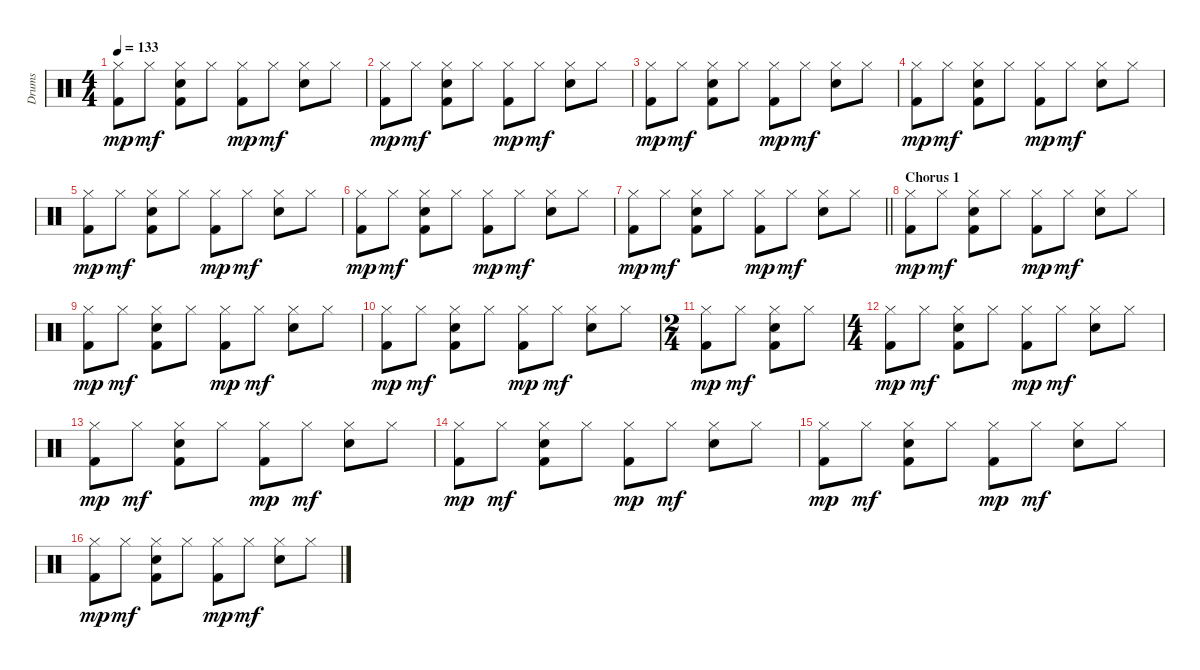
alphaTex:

\track ("Drums" "Drums") {instrument percussion}
\staff {score}
\articulation defaults
\ts (4 4)
\tempo 133
\clef neutral
\ks c
("Kick (hit) 2" "Hi-Hat (closed)").8{dy mp} "Hi-Hat (closed)".8{dy mf} ("Kick (hit) 2" "Snare (hit) 2" "Hi-Hat (closed)").8 "Hi-Hat (closed)".8 ("Kick (hit) 2" "Hi-Hat (closed)").8{dy mp} "Hi-Hat (closed)".8{dy mf} ("Snare (hit) 2" "Hi-Hat (closed)").8 "Hi-Hat (closed)".8 |
("Kick (hit) 2" "Hi-Hat (closed)").8{dy mp} "Hi-Hat (closed)".8{dy mf} ("Kick (hit) 2" "Snare (hit) 2" "Hi-Hat (closed)").8 "Hi-Hat (closed)".8 ("Kick (hit) 2" "Hi-Hat (closed)").8{dy mp} "Hi-Hat (closed)".8{dy mf} ("Snare (hit) 2" "Hi-Hat (closed)").8 "Hi-Hat (closed)".8 |
("Kick (hit) 2" "Hi-Hat (closed)").8{dy mp} "Hi-Hat (closed)".8{dy mf} ("Kick (hit) 2" "Snare (hit) 2" "Hi-Hat (closed)").8 "Hi-Hat (closed)".8 ("Kick (hit) 2" "Hi-Hat (closed)").8{dy mp} "Hi-Hat (closed)".8{dy mf} ("Snare (hit) 2" "Hi-Hat (closed)").8 "Hi-Hat (closed)".8 |
("Kick (hit) 2" "Hi-Hat (closed)").8{dy mp} "Hi-Hat (closed)".8{dy mf} ("Kick (hit) 2" "Snare (hit) 2" "Hi-Hat (closed)").8 "Hi-Hat (closed)".8 ("Kick (hit) 2" "Hi-Hat (closed)").8{dy mp} "Hi-Hat (closed)".8{dy mf} ("Snare (hit) 2" "Hi-Hat (closed)").8 "Hi-Hat (closed)".8 |
("Kick (hit) 2" "Hi-Hat (closed)").8{dy mp} "Hi-Hat (closed)".8{dy mf} ("Kick (hit) 2" "Snare (hit) 2" "Hi-Hat (closed)").8 "Hi-Hat (closed)".8 ("Kick (hit) 2" "Hi-Hat (closed)").8{dy mp} "Hi-Hat (closed)".8{dy mf} ("Snare (hit) 2" "Hi-Hat (closed)").8 "Hi-Hat (closed)".8 |
("Kick (hit) 2" "Hi-Hat (closed)").8{dy mp} "Hi-Hat (closed)".8{dy mf} ("Kick (hit) 2" "Snare (hit) 2" "Hi-Hat (closed)").8 "Hi-Hat (closed)".8 ("Kick (hit) 2" "Hi-Hat (closed)").8{dy mp} "Hi-Hat (closed)".8{dy mf} ("Snare (hit) 2" "Hi-Hat (closed)").8 "Hi-Hat (closed)".8 |
\barLineRight lightlight
("Kick (hit) 2" "Hi-Hat (closed)").8{dy mp} "Hi-Hat (closed)".8{dy mf} ("Kick (hit) 2" "Snare (hit) 2" "Hi-Hat (closed)").8 "Hi-Hat (closed)".8 ("Kick (hit) 2" "Hi-Hat (closed)").8{dy mp} "Hi-Hat (closed)".8{dy mf} ("Snare (hit) 2" "Hi-Hat (closed)").8 "Hi-Hat (closed)".8 |
\section ("" "Chorus 1")
("Kick (hit) 2" "Hi-Hat (closed)").8{dy mp} "Hi-Hat (closed)".8{dy mf} ("Kick (hit) 2" "Snare (hit) 2" "Hi-Hat (closed)").8 "Hi-Hat (closed)".8 ("Kick (hit) 2" "Hi-Hat (closed)").8{dy mp} "Hi-Hat (closed)".8{dy mf} ("Snare (hit) 2" "Hi-Hat (closed)").8 "Hi-Hat (closed)".8 |
("Kick (hit) 2" "Hi-Hat (closed)").8{dy mp} "Hi-Hat (closed)".8{dy mf} ("Kick (hit) 2" "Snare (hit) 2" "Hi-Hat (closed)").8 "Hi-Hat (closed)".8 ("Kick (hit) 2" "Hi-Hat (closed)").8{dy mp} "Hi-Hat (closed)".8{dy mf} ("Snare (hit) 2" "Hi-Hat (closed)").8 "Hi-Hat (closed)".8 |
("Kick (hit) 2" "Hi-Hat (closed)").8{dy mp} "Hi-Hat (closed)".8{dy mf} ("Kick (hit) 2" "Snare (hit) 2" "Hi-Hat (closed)").8 "Hi-Hat (closed)".8 ("Kick (hit) 2" "Hi-Hat (closed)").8{dy mp} "Hi-Hat (closed)".8{dy mf} ("Snare (hit) 2" "Hi-Hat (closed)").8 "Hi-Hat (closed)".8 |
\ts (2 4)
("Kick (hit) 2" "Hi-Hat (closed)").8{dy mp} "Hi-Hat (closed)".8{dy mf} ("Kick (hit) 2" "Snare (hit) 2" "Hi-Hat (closed)").8 "Hi-Hat (closed)".8 |
\ts (4 4)
("Kick (hit) 2" "Hi-Hat (closed)").8{dy mp} "Hi-Hat (closed)".8{dy mf} ("Kick (hit) 2" "Snare (hit) 2" "Hi-Hat (closed)").8 "Hi-Hat (closed)".8 ("Kick (hit) 2" "Hi-Hat (closed)").8{dy mp} "Hi-Hat (closed)".8{dy mf} ("Snare (hit) 2" "Hi-Hat (closed)").8 "Hi-Hat (closed)".8 |
("Kick (hit) 2" "Hi-Hat (closed)").8{dy mp} "Hi-Hat (closed)".8{dy mf} ("Kick (hit) 2" "Snare (hit) 2" "Hi-Hat (closed)").8 "Hi-Hat (closed)".8 ("Kick (hit) 2" "Hi-Hat (closed)").8{dy mp} "Hi-Hat (closed)".8{dy mf} ("Snare (hit) 2" "Hi-Hat (closed)").8 "Hi-Hat (closed)".8 |
("Kick (hit) 2" "Hi-Hat (closed)").8{dy mp} "Hi-Hat (closed)".8{dy mf} ("Kick (hit) 2" "Snare (hit) 2" "Hi-Hat (closed)").8 "Hi-Hat (closed)".8 ("Kick (hit) 2" "Hi-Hat (closed)").8{dy mp} "Hi-Hat (closed)".8{dy mf} ("Snare (hit) 2" "Hi-Hat (closed)").8 "Hi-Hat (closed)".8 |
("Kick (hit) 2" "Hi-Hat (closed)").8{dy mp} "Hi-Hat (closed)".8{dy mf} ("Kick (hit) 2" "Snare (hit) 2" "Hi-Hat (closed)").8 "Hi-Hat (closed)".8 ("Kick (hit) 2" "Hi-Hat (closed)").8{dy mp} "Hi-Hat (closed)".8{dy mf} ("Snare (hit) 2" "Hi-Hat (closed)").8 "Hi-Hat (closed)".8 |
("Kick (hit) 2" "Hi-Hat (closed)").8{dy mp} "Hi-Hat (closed)".8{dy mf} ("Kick (hit) 2" "Snare (hit) 2" "Hi-Hat (closed)").8 "Hi-Hat (closed)".8 ("Kick (hit) 2" "Hi-Hat (closed)").8{dy mp} "Hi-Hat (closed)".8{dy mf} ("Snare (hit) 2" "Hi-Hat (closed)").8 "Hi-Hat (closed)".8
